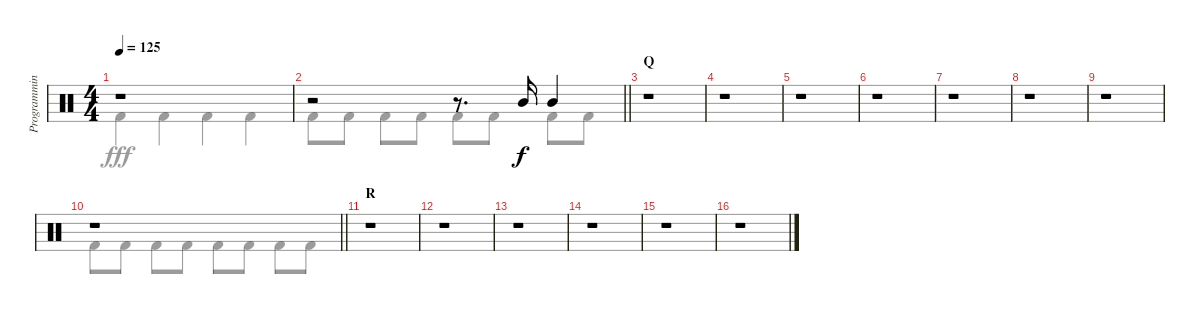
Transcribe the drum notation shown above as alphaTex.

\track ("Programming" "Programmin") {instrument percussion}
\staff {score}
\articulation defaults
\voice
\ts (4 4)
\tempo 125
\clef neutral
\ks c
r.1{dy f} |
\barLineRight lightlight
r.2 r.8{d} "Mid Tom (hit)".16 "Mid Tom (hit)".4 |
\section ("" "Q")
r.1 |
r.1 |
r.1 |
r.1 |
r.1 |
r.1 |
r.1 |
\barLineRight lightlight
r.1 |
\section ("" "R")
r.1 |
r.1 |
r.1 |
r.1 |
r.1 |
r.1
\voice
\clef neutral
\ottava regular
\simile none
\ks c "Kick (hit) 2".4{dy fff} "Kick (hit) 2".4 "Kick (hit) 2".4 "Kick (hit) 2".4
|
\barLineRight lightlight "Kick (hit) 2".8 "Kick (hit) 2".8 "Kick (hit) 2".8 "Kick (hit) 2".8 "Kick (hit) 2".8 "Kick (hit) 2".8 "Kick (hit) 2".8 "Kick (hit) 2".8
|
r.1 |
r.1 |
r.1 |
r.1 |
r.1 |
r.1 |
r.1 |
\barLineRight lightlight "Kick (hit) 2".8 "Kick (hit) 2".8 "Kick (hit) 2".8 "Kick (hit) 2".8 "Kick (hit) 2".8 "Kick (hit) 2".8 "Kick (hit) 2".8 "Kick (hit) 2".8
|
r.1 |
r.1 |
r.1 |
r.1 |
r.1 |
r.1
